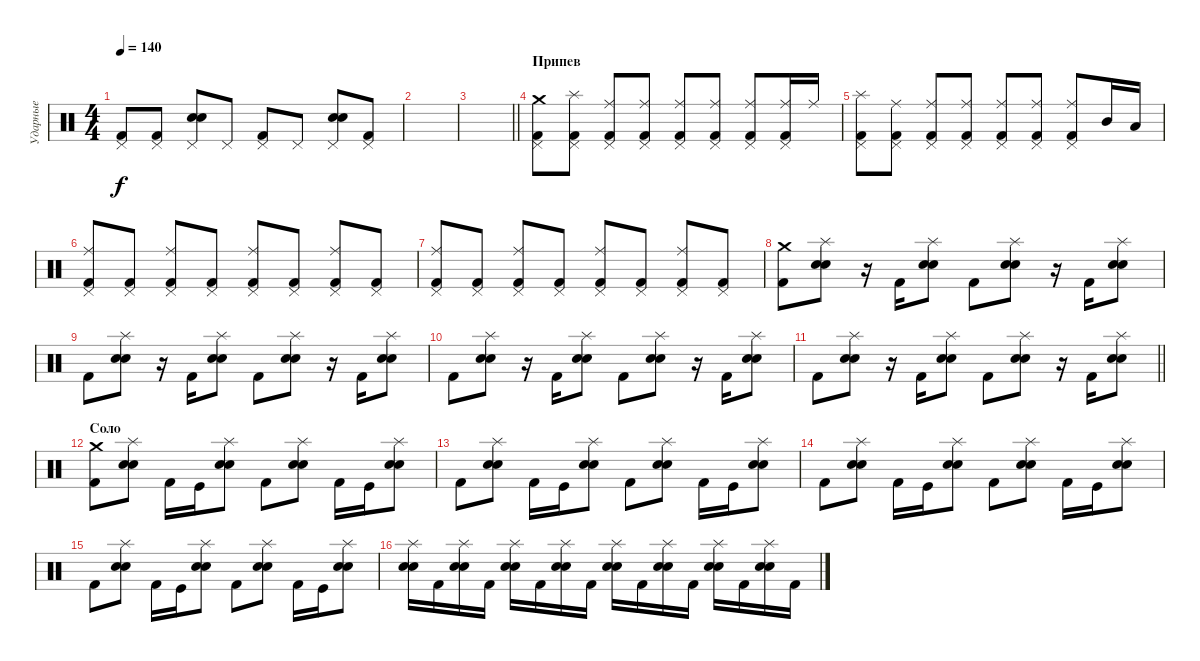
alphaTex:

\track ("Ударные" "Ударные") {instrument percussion}
\staff {score}
\articulation defaults
\ts (4 4)
\tempo 140
\clef neutral
\ks c
("Pedal Hi-Hat (hit)" "Kick (hit) 2").8{dy f} ("Pedal Hi-Hat (hit)" "Kick (hit) 2").8 ("Pedal Hi-Hat (hit)" "Electric Snare (hit)" "Snare (hit) 2").8 "Pedal Hi-Hat (hit)".8 ("Pedal Hi-Hat (hit)" "Kick (hit) 2").8 "Pedal Hi-Hat (hit)".8 ("Pedal Hi-Hat (hit)" "Electric Snare (hit)" "Snare (hit) 2").8 ("Pedal Hi-Hat (hit)" "Kick (hit) 2").8 |
|
\barLineRight lightlight
|
\section ("" "Припев")
("Crash medium (hit)" "Pedal Hi-Hat (hit)" "Kick (hit) 2").8 ("Splash (hit)" "Pedal Hi-Hat (hit)" "Kick (hit) 2").8 ("Ride (middle)" "Pedal Hi-Hat (hit)" "Kick (hit) 2").8 ("Ride (middle)" "Pedal Hi-Hat (hit)" "Kick (hit) 2").8 ("Ride (middle)" "Pedal Hi-Hat (hit)" "Kick (hit) 2").8 ("Ride (middle)" "Pedal Hi-Hat (hit)" "Kick (hit) 2").8 ("Ride (middle)" "Pedal Hi-Hat (hit)" "Kick (hit) 2").8 ("Ride (middle)" "Pedal Hi-Hat (hit)" "Kick (hit) 2").16 "Ride (middle)".16 |
("Splash (hit)" "Pedal Hi-Hat (hit)" "Kick (hit) 2").8 ("Ride (middle)" "Pedal Hi-Hat (hit)" "Kick (hit) 2").8 ("Ride (middle)" "Pedal Hi-Hat (hit)" "Kick (hit) 2").8 ("Ride (middle)" "Pedal Hi-Hat (hit)" "Kick (hit) 2").8 ("Ride (middle)" "Pedal Hi-Hat (hit)" "Kick (hit) 2").8 ("Ride (middle)" "Pedal Hi-Hat (hit)" "Kick (hit) 2").8 ("Ride (middle)" "Pedal Hi-Hat (hit)" "Kick (hit) 2").8 "Mid Tom (hit)".16 "Low Tom (hit)".16 |
("Ride (middle)" "Pedal Hi-Hat (hit)" "Kick (hit) 2").8 ("Pedal Hi-Hat (hit)" "Kick (hit) 2").8 ("Ride (middle)" "Pedal Hi-Hat (hit)" "Kick (hit) 2").8 ("Pedal Hi-Hat (hit)" "Kick (hit) 2").8 ("Ride (middle)" "Pedal Hi-Hat (hit)" "Kick (hit) 2").8 ("Pedal Hi-Hat (hit)" "Kick (hit) 2").8 ("Ride (middle)" "Pedal Hi-Hat (hit)" "Kick (hit) 2").8 ("Pedal Hi-Hat (hit)" "Kick (hit) 2").8 |
("Ride (middle)" "Pedal Hi-Hat (hit)" "Kick (hit) 2").8 ("Pedal Hi-Hat (hit)" "Kick (hit) 2").8 ("Ride (middle)" "Pedal Hi-Hat (hit)" "Kick (hit) 2").8 ("Pedal Hi-Hat (hit)" "Kick (hit) 2").8 ("Ride (middle)" "Pedal Hi-Hat (hit)" "Kick (hit) 2").8 ("Pedal Hi-Hat (hit)" "Kick (hit) 2").8 ("Ride (middle)" "Pedal Hi-Hat (hit)" "Kick (hit) 2").8 ("Pedal Hi-Hat (hit)" "Kick (hit) 2").8 |
("Crash medium (hit)" "Kick (hit) 2").8 ("Splash (hit)" "Electric Snare (hit)" "Snare (hit) 2").8 r.16 "Kick (hit) 2".16 ("Splash (hit)" "Electric Snare (hit)" "Snare (hit) 2").8 "Kick (hit) 2".8 ("Splash (hit)" "Electric Snare (hit)" "Snare (hit) 2").8 r.16 "Kick (hit) 2".16 ("Splash (hit)" "Electric Snare (hit)" "Snare (hit) 2").8 |
"Kick (hit) 2".8 ("Splash (hit)" "Electric Snare (hit)" "Snare (hit) 2").8 r.16 "Kick (hit) 2".16 ("Splash (hit)" "Electric Snare (hit)" "Snare (hit) 2").8 "Kick (hit) 2".8 ("Splash (hit)" "Electric Snare (hit)" "Snare (hit) 2").8 r.16 "Kick (hit) 2".16 ("Splash (hit)" "Electric Snare (hit)" "Snare (hit) 2").8 |
"Kick (hit) 2".8 ("Splash (hit)" "Electric Snare (hit)" "Snare (hit) 2").8 r.16 "Kick (hit) 2".16 ("Splash (hit)" "Electric Snare (hit)" "Snare (hit) 2").8 "Kick (hit) 2".8 ("Splash (hit)" "Electric Snare (hit)" "Snare (hit) 2").8 r.16 "Kick (hit) 2".16 ("Splash (hit)" "Electric Snare (hit)" "Snare (hit) 2").8 |
\barLineRight lightlight "Kick (hit) 2".8
("Splash (hit)" "Electric Snare (hit)" "Snare (hit) 2").8 r.16 "Kick (hit) 2".16 ("Splash (hit)" "Electric Snare (hit)" "Snare (hit) 2").8 "Kick (hit) 2".8 ("Splash (hit)" "Electric Snare (hit)" "Snare (hit) 2").8 r.16 "Kick (hit) 2".16 ("Splash (hit)" "Electric Snare (hit)" "Snare (hit) 2").8 |
\section ("" "Соло")
("Crash medium (hit)" "Kick (hit) 2").8 ("Splash (hit)" "Electric Snare (hit)" "Snare (hit) 2").8 "Kick (hit) 2".16 "Kick (hit)".16 ("Splash (hit)" "Electric Snare (hit)" "Snare (hit) 2").8 "Kick (hit) 2".8 ("Splash (hit)" "Electric Snare (hit)" "Snare (hit) 2").8 "Kick (hit) 2".16 "Kick (hit)".16 ("Splash (hit)" "Electric Snare (hit)" "Snare (hit) 2").8 |
"Kick (hit) 2".8 ("Splash (hit)" "Electric Snare (hit)" "Snare (hit) 2").8 "Kick (hit) 2".16 "Kick (hit)".16 ("Splash (hit)" "Electric Snare (hit)" "Snare (hit) 2").8 "Kick (hit) 2".8 ("Splash (hit)" "Electric Snare (hit)" "Snare (hit) 2").8 "Kick (hit) 2".16 "Kick (hit)".16 ("Splash (hit)" "Electric Snare (hit)" "Snare (hit) 2").8 |
"Kick (hit) 2".8 ("Splash (hit)" "Electric Snare (hit)" "Snare (hit) 2").8 "Kick (hit) 2".16 "Kick (hit)".16 ("Splash (hit)" "Electric Snare (hit)" "Snare (hit) 2").8 "Kick (hit) 2".8 ("Splash (hit)" "Electric Snare (hit)" "Snare (hit) 2").8 "Kick (hit) 2".16 "Kick (hit)".16 ("Splash (hit)" "Electric Snare (hit)" "Snare (hit) 2").8 |
"Kick (hit) 2".8 ("Splash (hit)" "Electric Snare (hit)" "Snare (hit) 2").8 "Kick (hit) 2".16 "Kick (hit)".16 ("Splash (hit)" "Electric Snare (hit)" "Snare (hit) 2").8 "Kick (hit) 2".8 ("Splash (hit)" "Electric Snare (hit)" "Snare (hit) 2").8 "Kick (hit) 2".16 "Kick (hit)".16 ("Splash (hit)" "Electric Snare (hit)" "Snare (hit) 2").8 |
("Splash (hit)" "Electric Snare (hit)" "Snare (hit) 2").16 "Kick (hit) 2".16 ("Splash (hit)" "Electric Snare (hit)" "Snare (hit) 2").16 "Kick (hit) 2".16 ("Splash (hit)" "Electric Snare (hit)" "Snare (hit) 2").16 "Kick (hit) 2".16 ("Splash (hit)" "Electric Snare (hit)" "Snare (hit) 2").16 "Kick (hit) 2".16 ("Splash (hit)" "Electric Snare (hit)" "Snare (hit) 2").16 "Kick (hit) 2".16 ("Splash (hit)" "Electric Snare (hit)" "Snare (hit) 2").16 "Kick (hit) 2".16 ("Splash (hit)" "Electric Snare (hit)" "Snare (hit) 2").16 "Kick (hit) 2".16 ("Splash (hit)" "Electric Snare (hit)" "Snare (hit) 2").16 "Kick (hit) 2".16
